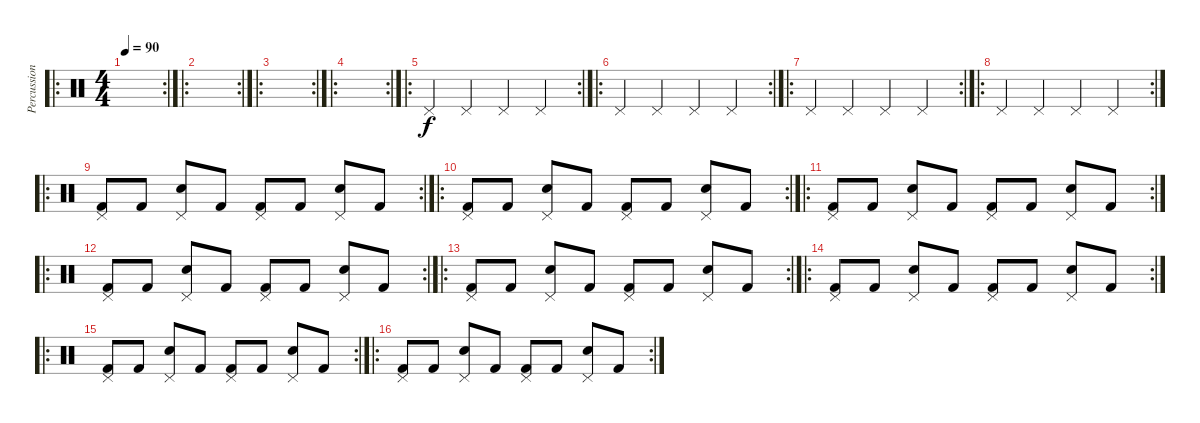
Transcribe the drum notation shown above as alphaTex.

\track ("Percussions" "Percussion") {instrument percussion}
\staff {score}
\articulation defaults
\ro
\rc 2
\ts (4 4)
\tempo 90
\clef neutral
\ks c
|
\ro
\rc 2
|
\ro
\rc 2
|
\ro
\rc 2
|
\ro
\rc 2 "Pedal Hi-Hat (hit)".4 "Pedal Hi-Hat (hit)".4 "Pedal Hi-Hat (hit)".4 "Pedal Hi-Hat (hit)".4
|
\ro
\rc 2 "Pedal Hi-Hat (hit)".4 "Pedal Hi-Hat (hit)".4 "Pedal Hi-Hat (hit)".4 "Pedal Hi-Hat (hit)".4
|
\ro
\rc 2 "Pedal Hi-Hat (hit)".4 "Pedal Hi-Hat (hit)".4 "Pedal Hi-Hat (hit)".4 "Pedal Hi-Hat (hit)".4
|
\ro
\rc 2 "Pedal Hi-Hat (hit)".4 "Pedal Hi-Hat (hit)".4 "Pedal Hi-Hat (hit)".4 "Pedal Hi-Hat (hit)".4
|
\ro
\rc 2
("Pedal Hi-Hat (hit)" "Kick (hit) 2").8 "Kick (hit) 2".8 ("Pedal Hi-Hat (hit)" "Snare (hit) 2").8 "Kick (hit) 2".8 ("Pedal Hi-Hat (hit)" "Kick (hit) 2").8 "Kick (hit) 2".8 ("Pedal Hi-Hat (hit)" "Snare (hit) 2").8 "Kick (hit) 2".8 |
\ro
\rc 2
("Pedal Hi-Hat (hit)" "Kick (hit) 2").8 "Kick (hit) 2".8 ("Pedal Hi-Hat (hit)" "Snare (hit) 2").8 "Kick (hit) 2".8 ("Pedal Hi-Hat (hit)" "Kick (hit) 2").8 "Kick (hit) 2".8 ("Pedal Hi-Hat (hit)" "Snare (hit) 2").8 "Kick (hit) 2".8 |
\ro
\rc 2
("Pedal Hi-Hat (hit)" "Kick (hit) 2").8 "Kick (hit) 2".8 ("Pedal Hi-Hat (hit)" "Snare (hit) 2").8 "Kick (hit) 2".8 ("Pedal Hi-Hat (hit)" "Kick (hit) 2").8 "Kick (hit) 2".8 ("Pedal Hi-Hat (hit)" "Snare (hit) 2").8 "Kick (hit) 2".8 |
\ro
\rc 2
("Pedal Hi-Hat (hit)" "Kick (hit) 2").8 "Kick (hit) 2".8 ("Pedal Hi-Hat (hit)" "Snare (hit) 2").8 "Kick (hit) 2".8 ("Pedal Hi-Hat (hit)" "Kick (hit) 2").8 "Kick (hit) 2".8 ("Pedal Hi-Hat (hit)" "Snare (hit) 2").8 "Kick (hit) 2".8 |
\ro
\rc 2
("Pedal Hi-Hat (hit)" "Kick (hit) 2").8 "Kick (hit) 2".8 ("Pedal Hi-Hat (hit)" "Snare (hit) 2").8 "Kick (hit) 2".8 ("Pedal Hi-Hat (hit)" "Kick (hit) 2").8 "Kick (hit) 2".8 ("Pedal Hi-Hat (hit)" "Snare (hit) 2").8 "Kick (hit) 2".8 |
\ro
\rc 2
("Pedal Hi-Hat (hit)" "Kick (hit) 2").8 "Kick (hit) 2".8 ("Pedal Hi-Hat (hit)" "Snare (hit) 2").8 "Kick (hit) 2".8 ("Pedal Hi-Hat (hit)" "Kick (hit) 2").8 "Kick (hit) 2".8 ("Pedal Hi-Hat (hit)" "Snare (hit) 2").8 "Kick (hit) 2".8 |
\ro
\rc 2
("Pedal Hi-Hat (hit)" "Kick (hit) 2").8 "Kick (hit) 2".8 ("Pedal Hi-Hat (hit)" "Snare (hit) 2").8 "Kick (hit) 2".8 ("Pedal Hi-Hat (hit)" "Kick (hit) 2").8 "Kick (hit) 2".8 ("Pedal Hi-Hat (hit)" "Snare (hit) 2").8 "Kick (hit) 2".8 |
\ro
\rc 2
("Pedal Hi-Hat (hit)" "Kick (hit) 2").8 "Kick (hit) 2".8 ("Pedal Hi-Hat (hit)" "Snare (hit) 2").8 "Kick (hit) 2".8 ("Pedal Hi-Hat (hit)" "Kick (hit) 2").8 "Kick (hit) 2".8 ("Pedal Hi-Hat (hit)" "Snare (hit) 2").8 "Kick (hit) 2".8
